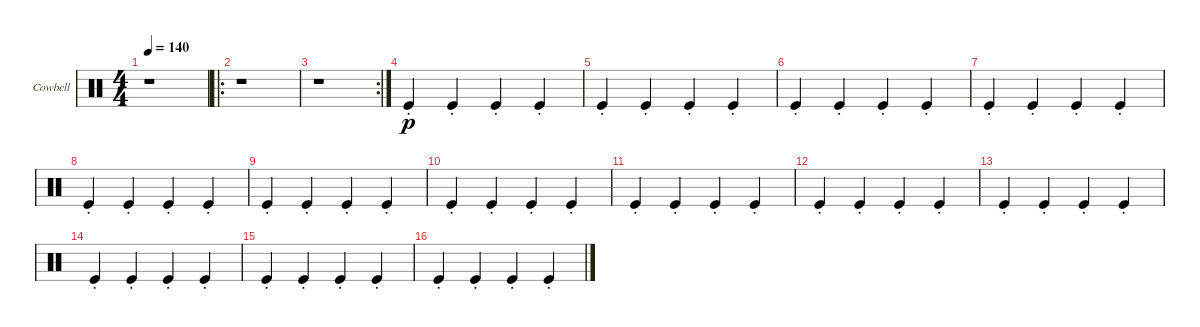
\defaultSystemsLayout 4
\bracketExtendMode groupsimilarinstruments
\firstSystemTrackNameOrientation horizontal
\otherSystemsTrackNameOrientation horizontal
\track ("Cowbell" "Cowbell") {instrument percussion}
\staff {score}
\articulation defaults
\ts (4 4)
\tempo 140
\clef neutral
\scale
0.288515
\ks c
r.1{dy p} |
\ro
\scale
0.196078 r.1 |
\rc 2
\scale
0.179272 r.1 |
\scale
0.336134 "Kick (hit)"{st}.4 "Kick (hit)"{st}.4 "Kick (hit)"{st}.4 "Kick (hit)"{st}.4 |
\scale
0.25 "Kick (hit)"{st}.4 "Kick (hit)"{st}.4 "Kick (hit)"{st}.4 "Kick (hit)"{st}.4 |
\scale
0.25 "Kick (hit)"{st}.4 "Kick (hit)"{st}.4 "Kick (hit)"{st}.4 "Kick (hit)"{st}.4 |
\scale
0.25 "Kick (hit)"{st}.4 "Kick (hit)"{st}.4 "Kick (hit)"{st}.4 "Kick (hit)"{st}.4 |
\scale
0.25 "Kick (hit)"{st}.4 "Kick (hit)"{st}.4 "Kick (hit)"{st}.4 "Kick (hit)"{st}.4 |
\scale
0.25 "Kick (hit)"{st}.4 "Kick (hit)"{st}.4 "Kick (hit)"{st}.4 "Kick (hit)"{st}.4 |
\scale
0.25 "Kick (hit)"{st}.4 "Kick (hit)"{st}.4 "Kick (hit)"{st}.4 "Kick (hit)"{st}.4 |
\scale
0.25 "Kick (hit)"{st}.4 "Kick (hit)"{st}.4 "Kick (hit)"{st}.4 "Kick (hit)"{st}.4 |
\scale
0.25 "Kick (hit)"{st}.4 "Kick (hit)"{st}.4 "Kick (hit)"{st}.4 "Kick (hit)"{st}.4 |
\scale
0.25 "Kick (hit)"{st}.4 "Kick (hit)"{st}.4 "Kick (hit)"{st}.4 "Kick (hit)"{st}.4 |
\scale
0.25 "Kick (hit)"{st}.4 "Kick (hit)"{st}.4 "Kick (hit)"{st}.4 "Kick (hit)"{st}.4 |
\scale
0.25 "Kick (hit)"{st}.4 "Kick (hit)"{st}.4 "Kick (hit)"{st}.4 "Kick (hit)"{st}.4 |
\scale
0.25 "Kick (hit)"{st}.4 "Kick (hit)"{st}.4 "Kick (hit)"{st}.4 "Kick (hit)"{st}.4
